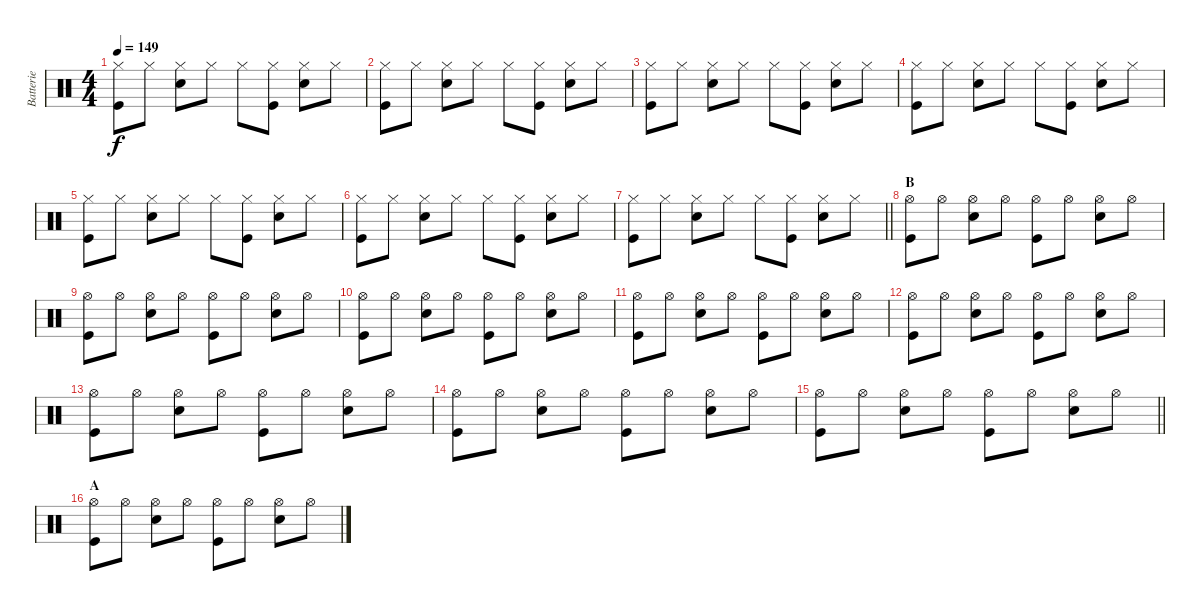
\track ("Batterie" "Batterie") {instrument percussion}
\staff {score}
\articulation defaults
\ts (4 4)
\tempo 149
\clef neutral
\ks c
("Hi-Hat (closed)" "Kick (hit)").8{dy f} "Hi-Hat (closed)".8 ("Hi-Hat (closed)" "Snare (hit) 2").8 "Hi-Hat (closed)".8 "Hi-Hat (closed)".8 ("Hi-Hat (closed)" "Kick (hit)").8 ("Hi-Hat (closed)" "Snare (hit) 2").8 "Hi-Hat (closed)".8 |
("Hi-Hat (closed)" "Kick (hit)").8 "Hi-Hat (closed)".8 ("Hi-Hat (closed)" "Snare (hit) 2").8 "Hi-Hat (closed)".8 "Hi-Hat (closed)".8 ("Hi-Hat (closed)" "Kick (hit)").8 ("Hi-Hat (closed)" "Snare (hit) 2").8 "Hi-Hat (closed)".8 |
("Hi-Hat (closed)" "Kick (hit)").8 "Hi-Hat (closed)".8 ("Hi-Hat (closed)" "Snare (hit) 2").8 "Hi-Hat (closed)".8 "Hi-Hat (closed)".8 ("Hi-Hat (closed)" "Kick (hit)").8 ("Hi-Hat (closed)" "Snare (hit) 2").8 "Hi-Hat (closed)".8 |
("Hi-Hat (closed)" "Kick (hit)").8 "Hi-Hat (closed)".8 ("Hi-Hat (closed)" "Snare (hit) 2").8 "Hi-Hat (closed)".8 "Hi-Hat (closed)".8 ("Hi-Hat (closed)" "Kick (hit)").8 ("Hi-Hat (closed)" "Snare (hit) 2").8 "Hi-Hat (closed)".8 |
("Hi-Hat (closed)" "Kick (hit)").8 "Hi-Hat (closed)".8 ("Hi-Hat (closed)" "Snare (hit) 2").8 "Hi-Hat (closed)".8 "Hi-Hat (closed)".8 ("Hi-Hat (closed)" "Kick (hit)").8 ("Hi-Hat (closed)" "Snare (hit) 2").8 "Hi-Hat (closed)".8 |
("Hi-Hat (closed)" "Kick (hit)").8 "Hi-Hat (closed)".8 ("Hi-Hat (closed)" "Snare (hit) 2").8 "Hi-Hat (closed)".8 "Hi-Hat (closed)".8 ("Hi-Hat (closed)" "Kick (hit)").8 ("Hi-Hat (closed)" "Snare (hit) 2").8 "Hi-Hat (closed)".8 |
\barLineRight lightlight
("Hi-Hat (closed)" "Kick (hit)").8 "Hi-Hat (closed)".8 ("Hi-Hat (closed)" "Snare (hit) 2").8 "Hi-Hat (closed)".8 "Hi-Hat (closed)".8 ("Hi-Hat (closed)" "Kick (hit)").8 ("Hi-Hat (closed)" "Snare (hit) 2").8 "Hi-Hat (closed)".8 |
\section ("" "B")
("Hi-Hat (open)" "Kick (hit)").8 "Hi-Hat (open)".8 ("Hi-Hat (open)" "Snare (hit) 2").8 "Hi-Hat (open)".8 ("Hi-Hat (open)" "Kick (hit)").8 "Hi-Hat (open)".8 ("Hi-Hat (open)" "Snare (hit) 2").8 "Hi-Hat (open)".8 |
("Hi-Hat (open)" "Kick (hit)").8 "Hi-Hat (open)".8 ("Hi-Hat (open)" "Snare (hit) 2").8 "Hi-Hat (open)".8 ("Hi-Hat (open)" "Kick (hit)").8 "Hi-Hat (open)".8 ("Hi-Hat (open)" "Snare (hit) 2").8 "Hi-Hat (open)".8 |
("Hi-Hat (open)" "Kick (hit)").8 "Hi-Hat (open)".8 ("Hi-Hat (open)" "Snare (hit) 2").8 "Hi-Hat (open)".8 ("Hi-Hat (open)" "Kick (hit)").8 "Hi-Hat (open)".8 ("Hi-Hat (open)" "Snare (hit) 2").8 "Hi-Hat (open)".8 |
("Hi-Hat (open)" "Kick (hit)").8 "Hi-Hat (open)".8 ("Hi-Hat (open)" "Snare (hit) 2").8 "Hi-Hat (open)".8 ("Hi-Hat (open)" "Kick (hit)").8 "Hi-Hat (open)".8 ("Hi-Hat (open)" "Snare (hit) 2").8 "Hi-Hat (open)".8 |
("Hi-Hat (open)" "Kick (hit)").8 "Hi-Hat (open)".8 ("Hi-Hat (open)" "Snare (hit) 2").8 "Hi-Hat (open)".8 ("Hi-Hat (open)" "Kick (hit)").8 "Hi-Hat (open)".8 ("Hi-Hat (open)" "Snare (hit) 2").8 "Hi-Hat (open)".8 |
("Hi-Hat (open)" "Kick (hit)").8 "Hi-Hat (open)".8 ("Hi-Hat (open)" "Snare (hit) 2").8 "Hi-Hat (open)".8 ("Hi-Hat (open)" "Kick (hit)").8 "Hi-Hat (open)".8 ("Hi-Hat (open)" "Snare (hit) 2").8 "Hi-Hat (open)".8 |
("Hi-Hat (open)" "Kick (hit)").8 "Hi-Hat (open)".8 ("Hi-Hat (open)" "Snare (hit) 2").8 "Hi-Hat (open)".8 ("Hi-Hat (open)" "Kick (hit)").8 "Hi-Hat (open)".8 ("Hi-Hat (open)" "Snare (hit) 2").8 "Hi-Hat (open)".8 |
\barLineRight lightlight
("Hi-Hat (open)" "Kick (hit)").8 "Hi-Hat (open)".8 ("Hi-Hat (open)" "Snare (hit) 2").8 "Hi-Hat (open)".8 ("Hi-Hat (open)" "Kick (hit)").8 "Hi-Hat (open)".8 ("Hi-Hat (open)" "Snare (hit) 2").8 "Hi-Hat (open)".8 |
\section ("" "A")
("Hi-Hat (open)" "Kick (hit)").8 "Hi-Hat (open)".8 ("Hi-Hat (open)" "Snare (hit) 2").8 "Hi-Hat (open)".8 ("Hi-Hat (open)" "Kick (hit)").8 "Hi-Hat (open)".8 ("Hi-Hat (open)" "Snare (hit) 2").8 "Hi-Hat (open)".8
